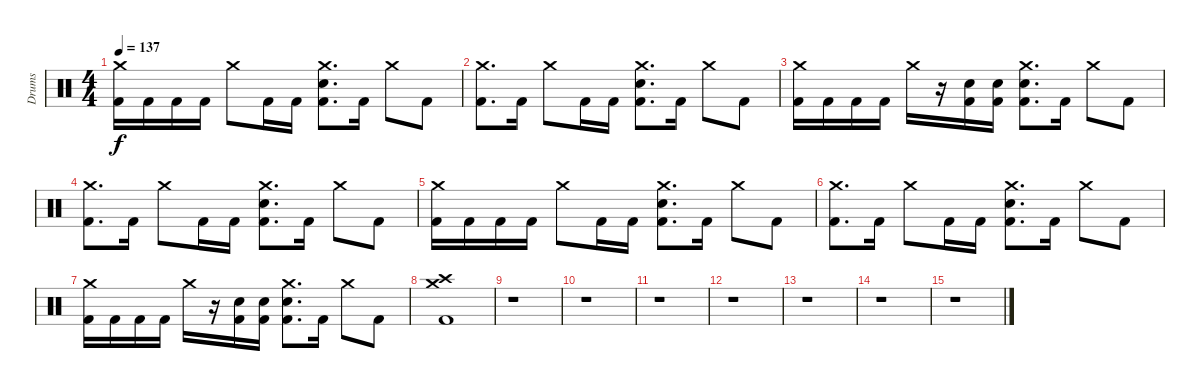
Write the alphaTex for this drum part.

\track ("Drums" "Drums") {instrument percussion}
\staff {score}
\articulation defaults
\ts (4 4)
\tempo 137
\clef neutral
\ks c
("Crash medium (hit)" "Kick (hit) 2").16{dy f} "Kick (hit) 2".16 "Kick (hit) 2".16 "Kick (hit) 2".16 "Crash medium (hit)".8 "Kick (hit) 2".16 "Kick (hit) 2".16 ("Crash medium (hit)" "Electric Snare (hit)" "Kick (hit) 2").8{d} "Kick (hit) 2".16 "Crash medium (hit)".8 "Kick (hit) 2".8 |
("Crash medium (hit)" "Kick (hit) 2").8{d} "Kick (hit) 2".16 "Crash medium (hit)".8 "Kick (hit) 2".16 "Kick (hit) 2".16 ("Crash medium (hit)" "Electric Snare (hit)" "Kick (hit) 2").8{d} "Kick (hit) 2".16 "Crash medium (hit)".8 "Kick (hit) 2".8 |
("Crash medium (hit)" "Kick (hit) 2").16 "Kick (hit) 2".16 "Kick (hit) 2".16 "Kick (hit) 2".16 "Crash medium (hit)".16 r.16 ("Electric Snare (hit)" "Kick (hit) 2").16 ("Electric Snare (hit)" "Kick (hit) 2").16 ("Crash medium (hit)" "Electric Snare (hit)" "Kick (hit) 2").8{d} "Kick (hit) 2".16 "Crash medium (hit)".8 "Kick (hit) 2".8 |
("Crash medium (hit)" "Kick (hit) 2").8{d} "Kick (hit) 2".16 "Crash medium (hit)".8 "Kick (hit) 2".16 "Kick (hit) 2".16 ("Crash medium (hit)" "Electric Snare (hit)" "Kick (hit) 2").8{d} "Kick (hit) 2".16 "Crash medium (hit)".8 "Kick (hit) 2".8 |
("Crash medium (hit)" "Kick (hit) 2").16 "Kick (hit) 2".16 "Kick (hit) 2".16 "Kick (hit) 2".16 "Crash medium (hit)".8 "Kick (hit) 2".16 "Kick (hit) 2".16 ("Crash medium (hit)" "Electric Snare (hit)" "Kick (hit) 2").8{d} "Kick (hit) 2".16 "Crash medium (hit)".8 "Kick (hit) 2".8 |
("Crash medium (hit)" "Kick (hit) 2").8{d} "Kick (hit) 2".16 "Crash medium (hit)".8 "Kick (hit) 2".16 "Kick (hit) 2".16 ("Crash medium (hit)" "Electric Snare (hit)" "Kick (hit) 2").8{d} "Kick (hit) 2".16 "Crash medium (hit)".8 "Kick (hit) 2".8 |
("Crash medium (hit)" "Kick (hit) 2").16 "Kick (hit) 2".16 "Kick (hit) 2".16 "Kick (hit) 2".16 "Crash medium (hit)".16 r.16 ("Electric Snare (hit)" "Kick (hit) 2").16 ("Electric Snare (hit)" "Kick (hit) 2").16 ("Crash medium (hit)" "Electric Snare (hit)" "Kick (hit) 2").8{d} "Kick (hit) 2".16 "Crash medium (hit)".8 "Kick (hit) 2".8 |
("Crash medium (hit)" "Crash high (hit)" "Kick (hit) 2").1 |
r.1 |
r.1 |
r.1 |
r.1 |
r.1 |
r.1 |
r.1
